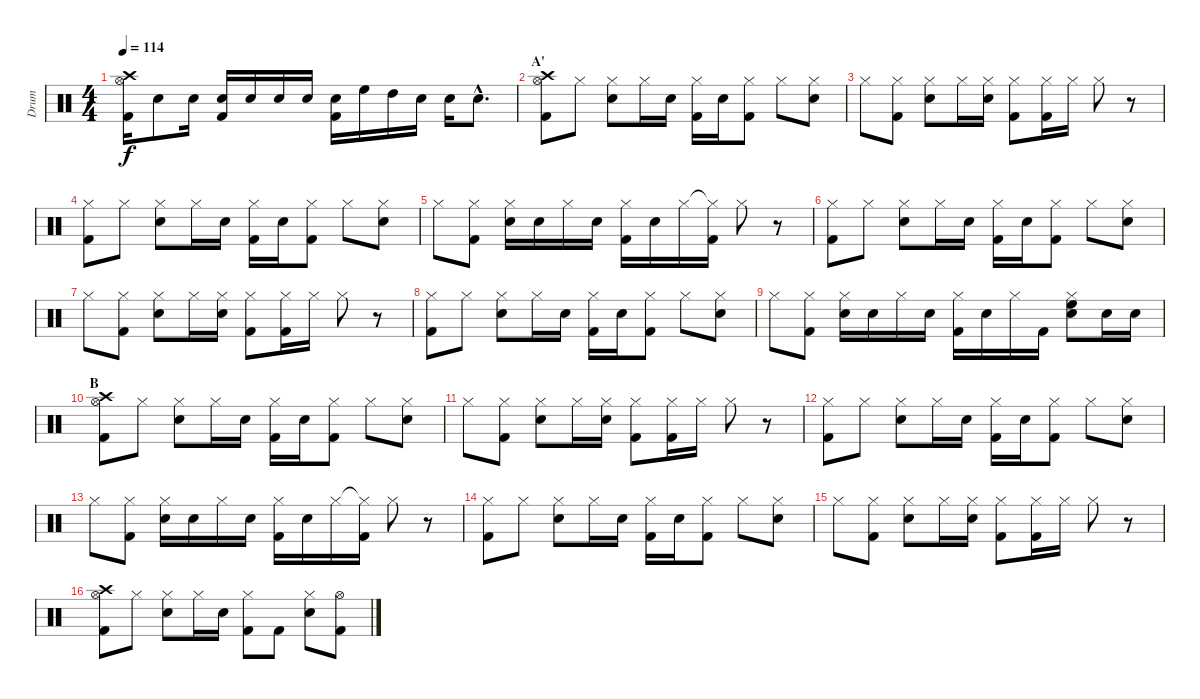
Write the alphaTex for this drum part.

\track ("Drum" "Drum") {instrument percussion}
\staff {score}
\articulation defaults
\ts (4 4)
\section ("" "")
\tempo 114
\clef neutral
\ks c
("Crash high (hit)" "Hi-Hat (open)" "Kick (hit) 2").16{dy f} "Snare (hit) 2".8 "Snare (hit) 2".16 ("Snare (hit)" "Kick (hit) 2").16 "Snare (hit) 2".16 "Snare (hit) 2".16 "Snare (hit) 2".16 ("Snare (hit) 2" "Kick (hit) 2").16 "High Floor Tom (hit)".16 "High Tom (hit)".16 "Snare (hit) 2".16 "Snare (hit) 2".16 "Snare (hit) 2"{hac}.8{d} |
\section ("" "A'")
("Crash high (hit)" "Hi-Hat (open)" "Kick (hit) 2").8 "Hi-Hat (closed)".8 ("Hi-Hat (closed)" "Snare (hit) 2").8 "Hi-Hat (closed)".16 "Snare (hit) 2".16 ("Hi-Hat (closed)" "Kick (hit) 2").16 "Snare (hit) 2".16 ("Hi-Hat (closed)" "Kick (hit) 2").8 "Hi-Hat (closed)".8 ("Hi-Hat (closed)" "Snare (hit) 2").8 |
"Hi-Hat (closed)".8 ("Hi-Hat (closed)" "Kick (hit) 2").8 ("Hi-Hat (closed)" "Snare (hit) 2").8 "Hi-Hat (closed)".16 ("Hi-Hat (closed)" "Snare (hit) 2").16 ("Hi-Hat (closed)" "Kick (hit) 2").8 ("Hi-Hat (closed)" "Kick (hit) 2").16 "Hi-Hat (closed)".16 "Hi-Hat (closed)".8 r.8 |
("Hi-Hat (closed)" "Kick (hit) 2").8 "Hi-Hat (closed)".8 ("Hi-Hat (closed)" "Snare (hit) 2").8 "Hi-Hat (closed)".16 "Snare (hit) 2".16 ("Hi-Hat (closed)" "Kick (hit) 2").16 "Snare (hit) 2".16 ("Hi-Hat (closed)" "Kick (hit) 2").8 "Hi-Hat (closed)".8 ("Hi-Hat (closed)" "Snare (hit) 2").8 |
"Hi-Hat (closed)".8 ("Hi-Hat (closed)" "Kick (hit) 2").8 ("Hi-Hat (closed)" "Snare (hit) 2").16 "Snare (hit) 2".16 "Hi-Hat (closed)".16 "Snare (hit) 2".16 ("Hi-Hat (closed)" "Kick (hit) 2").16 "Snare (hit) 2".16 "Hi-Hat (closed)".16 ("Hi-Hat (closed)"{t} "Kick (hit) 2").16 "Hi-Hat (closed)".8 r.8 |
("Hi-Hat (closed)" "Kick (hit) 2").8 "Hi-Hat (closed)".8 ("Hi-Hat (closed)" "Snare (hit) 2").8 "Hi-Hat (closed)".16 "Snare (hit) 2".16 ("Hi-Hat (closed)" "Kick (hit) 2").16 "Snare (hit) 2".16 ("Hi-Hat (closed)" "Kick (hit) 2").8 "Hi-Hat (closed)".8 ("Hi-Hat (closed)" "Snare (hit) 2").8 |
"Hi-Hat (closed)".8 ("Hi-Hat (closed)" "Kick (hit) 2").8 ("Hi-Hat (closed)" "Snare (hit) 2").8 "Hi-Hat (closed)".16 ("Hi-Hat (closed)" "Snare (hit) 2").16 ("Hi-Hat (closed)" "Kick (hit) 2").8 ("Hi-Hat (closed)" "Kick (hit) 2").16 "Hi-Hat (closed)".16 "Hi-Hat (closed)".8 r.8 |
("Hi-Hat (closed)" "Kick (hit) 2").8 "Hi-Hat (closed)".8 ("Hi-Hat (closed)" "Snare (hit) 2").8 "Hi-Hat (closed)".16 "Snare (hit) 2".16 ("Hi-Hat (closed)" "Kick (hit) 2").16 "Snare (hit) 2".16 ("Hi-Hat (closed)" "Kick (hit) 2").8 "Hi-Hat (closed)".8 ("Hi-Hat (closed)" "Snare (hit) 2").8 |
"Hi-Hat (closed)".8 ("Hi-Hat (closed)" "Kick (hit) 2").8 ("Hi-Hat (closed)" "Snare (hit) 2").16 "Snare (hit) 2".16 "Hi-Hat (closed)".16 "Snare (hit) 2".16 ("Hi-Hat (closed)" "Kick (hit) 2").16 "Snare (hit) 2".16 "Hi-Hat (closed)".16 "Kick (hit) 2".16 ("Hi-Hat (closed)" "High Floor Tom (hit)" "Snare (hit) 2").8 "Snare (hit) 2".16 "Snare (hit) 2".16 |
\section ("" "B")
("Crash high (hit)" "Hi-Hat (open)" "Kick (hit) 2").8 "Hi-Hat (closed)".8 ("Hi-Hat (closed)" "Snare (hit) 2").8 "Hi-Hat (closed)".16 "Snare (hit) 2".16 ("Hi-Hat (closed)" "Kick (hit) 2").16 "Snare (hit) 2".16 ("Hi-Hat (closed)" "Kick (hit) 2").8 "Hi-Hat (closed)".8 ("Hi-Hat (closed)" "Snare (hit) 2").8 |
"Hi-Hat (closed)".8 ("Hi-Hat (closed)" "Kick (hit) 2").8 ("Hi-Hat (closed)" "Snare (hit) 2").8 "Hi-Hat (closed)".16 ("Hi-Hat (closed)" "Snare (hit) 2").16 ("Hi-Hat (closed)" "Kick (hit) 2").8 ("Hi-Hat (closed)" "Kick (hit) 2").16 "Hi-Hat (closed)".16 "Hi-Hat (closed)".8 r.8 |
("Hi-Hat (closed)" "Kick (hit) 2").8 "Hi-Hat (closed)".8 ("Hi-Hat (closed)" "Snare (hit) 2").8 "Hi-Hat (closed)".16 "Snare (hit) 2".16 ("Hi-Hat (closed)" "Kick (hit) 2").16 "Snare (hit) 2".16 ("Hi-Hat (closed)" "Kick (hit) 2").8 "Hi-Hat (closed)".8 ("Hi-Hat (closed)" "Snare (hit) 2").8 |
"Hi-Hat (closed)".8 ("Hi-Hat (closed)" "Kick (hit) 2").8 ("Hi-Hat (closed)" "Snare (hit) 2").16 "Snare (hit) 2".16 "Hi-Hat (closed)".16 "Snare (hit) 2".16 ("Hi-Hat (closed)" "Kick (hit) 2").16 "Snare (hit) 2".16 "Hi-Hat (closed)".16 ("Hi-Hat (closed)"{t} "Kick (hit) 2").16 "Hi-Hat (closed)".8 r.8 |
("Hi-Hat (closed)" "Kick (hit) 2").8 "Hi-Hat (closed)".8 ("Hi-Hat (closed)" "Snare (hit) 2").8 "Hi-Hat (closed)".16 "Snare (hit) 2".16 ("Hi-Hat (closed)" "Kick (hit) 2").16 "Snare (hit) 2".16 ("Hi-Hat (closed)" "Kick (hit) 2").8 "Hi-Hat (closed)".8 ("Hi-Hat (closed)" "Snare (hit) 2").8 |
"Hi-Hat (closed)".8 ("Hi-Hat (closed)" "Kick (hit) 2").8 ("Hi-Hat (closed)" "Snare (hit) 2").8 "Hi-Hat (closed)".16 ("Hi-Hat (closed)" "Snare (hit) 2").16 ("Hi-Hat (closed)" "Kick (hit) 2").8 ("Hi-Hat (closed)" "Kick (hit) 2").16 "Hi-Hat (closed)".16 "Hi-Hat (closed)".8 r.8 |
("Crash high (hit)" "Hi-Hat (open)" "Kick (hit) 2").8 "Hi-Hat (closed)".8 ("Hi-Hat (closed)" "Snare (hit) 2").8 "Hi-Hat (closed)".16 "Snare (hit) 2".16 ("Hi-Hat (closed)" "Kick (hit) 2").8 "Kick (hit) 2".8 ("Hi-Hat (closed)" "Snare (hit) 2").8 ("Hi-Hat (open)" "Kick (hit) 2").8
